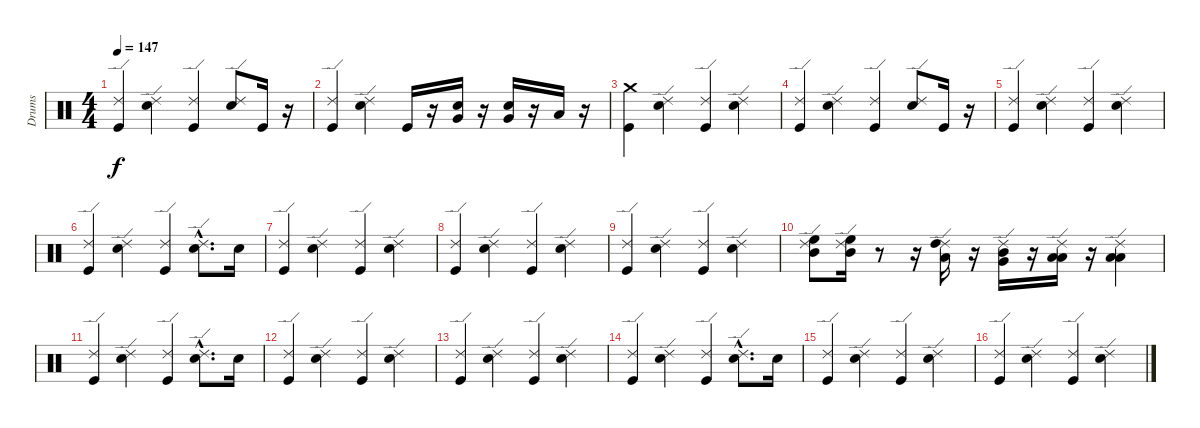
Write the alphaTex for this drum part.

\track ("Drums" "Drums") {instrument percussion}
\staff {score}
\articulation defaults
\ts (4 4)
\tempo 147
\clef neutral
\ks c
("Ride (edge) 2" "Kick (hit)").4{dy f} ("Ride (edge) 2" "Snare (hit) 2").4 ("Ride (edge) 2" "Kick (hit)").4 ("Ride (edge) 2" "Snare (hit) 2").8 "Kick (hit)".16 r.16 |
("Ride (edge) 2" "Kick (hit)").4 ("Ride (edge) 2" "Snare (hit) 2").4 "Kick (hit)".16 r.16 ("Very Low Tom (hit)" "Snare (hit) 2").16 r.16 ("Very Low Tom (hit)" "Snare (hit) 2").16 r.16 "Low Floor Tom (hit)".16 r.16 |
("Crash medium (hit)" "Kick (hit)").4 ("Ride (edge) 2" "Snare (hit) 2").4 ("Ride (edge) 2" "Kick (hit)").4 ("Ride (edge) 2" "Snare (hit) 2").4 |
("Ride (edge) 2" "Kick (hit)").4 ("Ride (edge) 2" "Snare (hit) 2").4 ("Ride (edge) 2" "Kick (hit)").4 ("Ride (edge) 2" "Snare (hit) 2").8 "Kick (hit)".16 r.16 |
("Ride (edge) 2" "Kick (hit)").4 ("Ride (edge) 2" "Snare (hit) 2").4 ("Ride (edge) 2" "Kick (hit)").4 ("Ride (edge) 2" "Snare (hit) 2").4 |
("Ride (edge) 2" "Kick (hit)").4 ("Ride (edge) 2" "Snare (hit) 2").4 ("Ride (edge) 2" "Kick (hit)").4 ("Ride (edge) 2"{hac} "Snare (hit) 2"{hac}).8{d} "Snare (hit) 2".16 |
("Ride (edge) 2" "Kick (hit)").4 ("Ride (edge) 2" "Snare (hit) 2").4 ("Ride (edge) 2" "Kick (hit)").4 ("Ride (edge) 2" "Snare (hit) 2").4 |
("Ride (edge) 2" "Kick (hit)").4 ("Ride (edge) 2" "Snare (hit) 2").4 ("Ride (edge) 2" "Kick (hit)").4 ("Ride (edge) 2" "Snare (hit) 2").4 |
("Ride (edge) 2" "Kick (hit)").4 ("Ride (edge) 2" "Snare (hit) 2").4 ("Ride (edge) 2" "Kick (hit)").4 ("Ride (edge) 2" "Snare (hit) 2").4 |
("Ride (edge) 2" "Mid Tom (hit)" "High Floor Tom (hit)").8 ("Ride (edge) 2" "Mid Tom (hit)" "High Floor Tom (hit)").16 r.8 r.16 ("Ride (edge) 2" "Low Tom (hit)" "High Tom (hit)").16 r.16 ("Ride (edge) 2" "Very Low Tom (hit)" "Mid Tom (hit)").16 r.16 ("Ride (edge) 2" "Low Floor Tom (hit)" "Low Tom (hit)").16 r.16 ("Ride (edge) 2" "Low Floor Tom (hit)" "Low Tom (hit)").4 |
("Ride (edge) 2" "Kick (hit)").4 ("Ride (edge) 2" "Snare (hit) 2").4 ("Ride (edge) 2" "Kick (hit)").4 ("Ride (edge) 2"{hac} "Snare (hit) 2"{hac}).8{d} "Snare (hit) 2".16 |
("Ride (edge) 2" "Kick (hit)").4 ("Ride (edge) 2" "Snare (hit) 2").4 ("Ride (edge) 2" "Kick (hit)").4 ("Ride (edge) 2" "Snare (hit) 2").4 |
("Ride (edge) 2" "Kick (hit)").4 ("Ride (edge) 2" "Snare (hit) 2").4 ("Ride (edge) 2" "Kick (hit)").4 ("Ride (edge) 2" "Snare (hit) 2").4 |
("Ride (edge) 2" "Kick (hit)").4 ("Ride (edge) 2" "Snare (hit) 2").4 ("Ride (edge) 2" "Kick (hit)").4 ("Ride (edge) 2"{hac} "Snare (hit) 2"{hac}).8{d} "Snare (hit) 2".16 |
("Ride (edge) 2" "Kick (hit)").4 ("Ride (edge) 2" "Snare (hit) 2").4 ("Ride (edge) 2" "Kick (hit)").4 ("Ride (edge) 2" "Snare (hit) 2").4 |
("Ride (edge) 2" "Kick (hit)").4 ("Ride (edge) 2" "Snare (hit) 2").4 ("Ride (edge) 2" "Kick (hit)").4 ("Ride (edge) 2" "Snare (hit) 2").4
